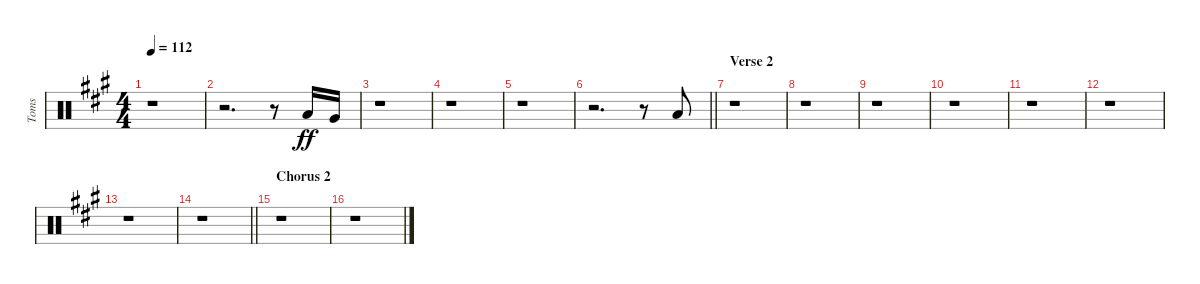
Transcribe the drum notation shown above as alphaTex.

\track ("Toms" "Toms") {instrument percussion}
\staff {score}
\articulation defaults
\ts (4 4)
\tempo 112
\clef neutral
\ks f#minor
r.1{dy ff} |
r.2{d} r.8{beam Up} "Low Tom (hit)".16{beam Up} "Very Low Tom (hit)".16{beam Up} |
r.1 |
r.1 |
r.1 |
\barLineRight lightlight
r.2{d} r.8 "Low Tom (hit)".8{beam Up} |
\section ("" "Verse 2")
r.1 |
r.1 |
r.1 |
r.1 |
r.1 |
r.1 |
r.1 |
\barLineRight lightlight
r.1 |
\section ("" "Chorus 2")
r.1 |
r.1
